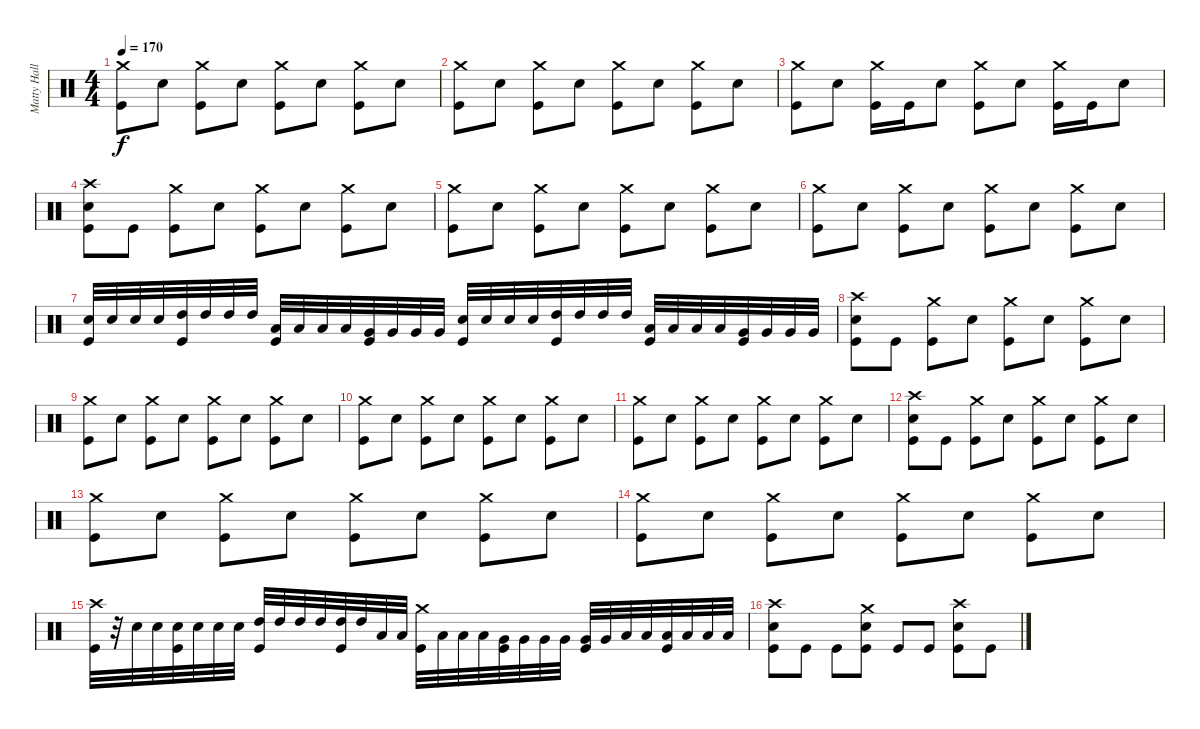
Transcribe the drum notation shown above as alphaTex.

\track ("Matty Hallick - Drums" "Matty Hall") {instrument percussion}
\staff {score}
\articulation defaults
\ts (4 4)
\tempo 170
\clef neutral
\ks c
("Crash medium (hit)" "Kick (hit)").8{dy f} "Snare (hit) 2".8 ("Crash medium (hit)" "Kick (hit)").8 "Snare (hit) 2".8 ("Crash medium (hit)" "Kick (hit)").8 "Snare (hit) 2".8 ("Crash medium (hit)" "Kick (hit)").8 "Snare (hit) 2".8 |
("Crash medium (hit)" "Kick (hit)").8 "Snare (hit) 2".8 ("Crash medium (hit)" "Kick (hit)").8 "Snare (hit) 2".8 ("Crash medium (hit)" "Kick (hit)").8 "Snare (hit) 2".8 ("Crash medium (hit)" "Kick (hit)").8 "Snare (hit) 2".8 |
("Crash medium (hit)" "Kick (hit)").8 "Snare (hit) 2".8 ("Crash medium (hit)" "Kick (hit)").16 "Kick (hit)".16 "Snare (hit) 2".8 ("Crash medium (hit)" "Kick (hit)").8 "Snare (hit) 2".8 ("Crash medium (hit)" "Kick (hit)").16 "Kick (hit)".16 "Snare (hit) 2".8 |
("Crash high (hit)" "Snare (hit) 2" "Kick (hit)").8 "Kick (hit)".8 ("Crash medium (hit)" "Kick (hit)").8 "Snare (hit) 2".8 ("Crash medium (hit)" "Kick (hit)").8 "Snare (hit) 2".8 ("Crash medium (hit)" "Kick (hit)").8 "Snare (hit) 2".8 |
("Crash medium (hit)" "Kick (hit)").8 "Snare (hit) 2".8 ("Crash medium (hit)" "Kick (hit)").8 "Snare (hit) 2".8 ("Crash medium (hit)" "Kick (hit)").8 "Snare (hit) 2".8 ("Crash medium (hit)" "Kick (hit)").8 "Snare (hit) 2".8 |
("Crash medium (hit)" "Kick (hit)").8 "Snare (hit) 2".8 ("Crash medium (hit)" "Kick (hit)").8 "Snare (hit) 2".8 ("Crash medium (hit)" "Kick (hit)").8 "Snare (hit) 2".8 ("Crash medium (hit)" "Kick (hit)").8 "Snare (hit) 2".8 |
("Snare (hit) 2" "Kick (hit)").32 "Snare (hit) 2".32 "Snare (hit) 2".32 "Snare (hit) 2".32 ("High Tom (hit)" "Kick (hit)").32 "High Tom (hit)".32 "High Tom (hit)".32 "High Tom (hit)".32 ("Low Tom (hit)" "Kick (hit)").32 "Low Tom (hit)".32 "Low Tom (hit)".32 "Low Tom (hit)".32 ("Very Low Tom (hit)" "Kick (hit)").32 "Very Low Tom (hit)".32 "Very Low Tom (hit)".32 "Very Low Tom (hit)".32 ("Snare (hit) 2" "Kick (hit)").32 "Snare (hit) 2".32 "Snare (hit) 2".32 "Snare (hit) 2".32 ("High Tom (hit)" "Kick (hit)").32 "High Tom (hit)".32 "High Tom (hit)".32 "High Tom (hit)".32 ("Low Tom (hit)" "Kick (hit)").32 "Low Tom (hit)".32 "Low Tom (hit)".32 "Low Tom (hit)".32 ("Very Low Tom (hit)" "Kick (hit)").32 "Very Low Tom (hit)".32 "Very Low Tom (hit)".32 "Very Low Tom (hit)".32 |
("Crash high (hit)" "Snare (hit) 2" "Kick (hit)").8 "Kick (hit)".8 ("Crash medium (hit)" "Kick (hit)").8 "Snare (hit) 2".8 ("Crash medium (hit)" "Kick (hit)").8 "Snare (hit) 2".8 ("Crash medium (hit)" "Kick (hit)").8 "Snare (hit) 2".8 |
("Crash medium (hit)" "Kick (hit)").8 "Snare (hit) 2".8 ("Crash medium (hit)" "Kick (hit)").8 "Snare (hit) 2".8 ("Crash medium (hit)" "Kick (hit)").8 "Snare (hit) 2".8 ("Crash medium (hit)" "Kick (hit)").8 "Snare (hit) 2".8 |
("Crash medium (hit)" "Kick (hit)").8 "Snare (hit) 2".8 ("Crash medium (hit)" "Kick (hit)").8 "Snare (hit) 2".8 ("Crash medium (hit)" "Kick (hit)").8 "Snare (hit) 2".8 ("Crash medium (hit)" "Kick (hit)").8 "Snare (hit) 2".8 |
("Crash medium (hit)" "Kick (hit)").8 "Snare (hit) 2".8 ("Crash medium (hit)" "Kick (hit)").8 "Snare (hit) 2".8 ("Crash medium (hit)" "Kick (hit)").8 "Snare (hit) 2".8 ("Crash medium (hit)" "Kick (hit)").8 "Snare (hit) 2".8 |
("Crash high (hit)" "Snare (hit) 2" "Kick (hit)").8 "Kick (hit)".8 ("Crash medium (hit)" "Kick (hit)").8 "Snare (hit) 2".8 ("Crash medium (hit)" "Kick (hit)").8 "Snare (hit) 2".8 ("Crash medium (hit)" "Kick (hit)").8 "Snare (hit) 2".8 |
("Crash medium (hit)" "Kick (hit)").8 "Snare (hit) 2".8 ("Crash medium (hit)" "Kick (hit)").8 "Snare (hit) 2".8 ("Crash medium (hit)" "Kick (hit)").8 "Snare (hit) 2".8 ("Crash medium (hit)" "Kick (hit)").8 "Snare (hit) 2".8 |
("Crash medium (hit)" "Kick (hit)").8 "Snare (hit) 2".8 ("Crash medium (hit)" "Kick (hit)").8 "Snare (hit) 2".8 ("Crash medium (hit)" "Kick (hit)").8 "Snare (hit) 2".8 ("Crash medium (hit)" "Kick (hit)").8 "Snare (hit) 2".8 |
("Crash high (hit)" "Kick (hit)").32 r.32 "Snare (hit) 2".32 "Snare (hit) 2".32 ("Snare (hit) 2" "Kick (hit)").32 "Snare (hit) 2".32 "Snare (hit) 2".32 "Snare (hit) 2".32 ("High Tom (hit)" "Kick (hit)").32 "High Tom (hit)".32 "High Tom (hit)".32 "High Tom (hit)".32 ("High Tom (hit)" "Kick (hit)").32 "High Tom (hit)".32 "Low Tom (hit)".32 "Low Tom (hit)".32 ("Crash medium (hit)" "Kick (hit)").32 "Low Tom (hit)".32 "Low Tom (hit)".32 "Low Tom (hit)".32 ("Very Low Tom (hit)" "Kick (hit)").32 "Very Low Tom (hit)".32 "Very Low Tom (hit)".32 "Very Low Tom (hit)".32 ("Very Low Tom (hit)" "Kick (hit)").32 "Very Low Tom (hit)".32 "Low Floor Tom (hit)".32 "Low Floor Tom (hit)".32 ("Low Floor Tom (hit)" "Kick (hit)").32 "Low Floor Tom (hit)".32 "Low Floor Tom (hit)".32 "Low Floor Tom (hit)".32 |
("Crash high (hit)" "Snare (hit) 2" "Kick (hit)").8 "Kick (hit)".8 "Kick (hit)".8 ("Crash medium (hit)" "Snare (hit) 2" "Kick (hit)").8 "Kick (hit)".8 "Kick (hit)".8 ("Crash high (hit)" "Snare (hit) 2" "Kick (hit)").8 "Kick (hit)".8
